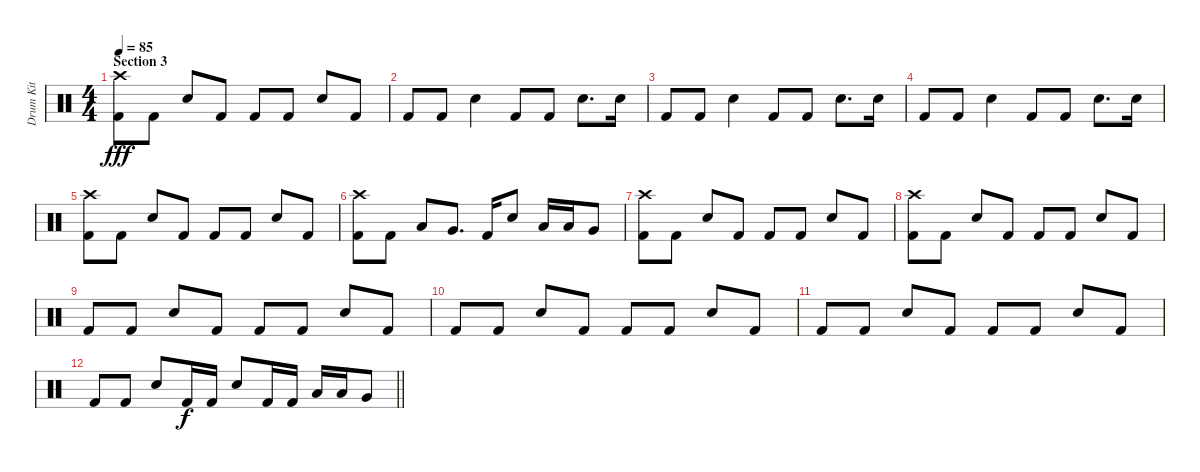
\track ("Drum Kit" "Drum Kit") {instrument percussion}
\staff {score}
\articulation defaults
\ts (4 4)
\section ("" "Section 3")
\tempo 85
\clef neutral
\ks c
("Crash high (hit)" "Kick (hit) 2").8{dy fff} "Kick (hit) 2".8 "Snare (hit) 2".8 "Kick (hit) 2".8 "Kick (hit) 2".8 "Kick (hit) 2".8 "Snare (hit) 2".8 "Kick (hit) 2".8 |
"Kick (hit) 2".8 "Kick (hit) 2".8 "Snare (hit) 2".4 "Kick (hit) 2".8 "Kick (hit) 2".8 "Snare (hit) 2".8{d} "Snare (hit) 2".16 |
"Kick (hit) 2".8 "Kick (hit) 2".8 "Snare (hit) 2".4 "Kick (hit) 2".8 "Kick (hit) 2".8 "Snare (hit) 2".8{d} "Snare (hit) 2".16 |
"Kick (hit) 2".8 "Kick (hit) 2".8 "Snare (hit) 2".4 "Kick (hit) 2".8 "Kick (hit) 2".8 "Snare (hit) 2".8{d} "Snare (hit) 2".16 |
("Crash high (hit)" "Kick (hit) 2").8 "Kick (hit) 2".8 "Snare (hit) 2".8 "Kick (hit) 2".8 "Kick (hit) 2".8 "Kick (hit) 2".8 "Snare (hit) 2".8 "Kick (hit) 2".8 |
("Crash high (hit)" "Kick (hit) 2").8 "Kick (hit) 2".8 "Low Tom (hit)".8 "Very Low Tom (hit)".8{d} "Kick (hit) 2".16 "Snare (hit) 2".8 "Low Tom (hit)".16 "Low Tom (hit)".16 "Very Low Tom (hit)".8 |
("Crash high (hit)" "Kick (hit) 2").8 "Kick (hit) 2".8 "Snare (hit) 2".8 "Kick (hit) 2".8 "Kick (hit) 2".8 "Kick (hit) 2".8 "Snare (hit) 2".8 "Kick (hit) 2".8 |
("Crash high (hit)" "Kick (hit) 2").8 "Kick (hit) 2".8 "Snare (hit) 2".8 "Kick (hit) 2".8 "Kick (hit) 2".8 "Kick (hit) 2".8 "Snare (hit) 2".8 "Kick (hit) 2".8 |
"Kick (hit) 2".8 "Kick (hit) 2".8 "Snare (hit) 2".8 "Kick (hit) 2".8 "Kick (hit) 2".8 "Kick (hit) 2".8 "Snare (hit) 2".8 "Kick (hit) 2".8 |
"Kick (hit) 2".8 "Kick (hit) 2".8 "Snare (hit) 2".8 "Kick (hit) 2".8 "Kick (hit) 2".8 "Kick (hit) 2".8 "Snare (hit) 2".8 "Kick (hit) 2".8 |
"Kick (hit) 2".8 "Kick (hit) 2".8 "Snare (hit) 2".8 "Kick (hit) 2".8 "Kick (hit) 2".8 "Kick (hit) 2".8 "Snare (hit) 2".8 "Kick (hit) 2".8 |
\barLineRight lightlight "Kick (hit) 2".8 "Kick (hit) 2".8 "Snare (hit) 2".8 "Kick (hit) 2".16{dy f} "Kick (hit) 2".16 "Snare (hit) 2".8 "Kick (hit) 2".16 "Kick (hit) 2".16 "Low Tom (hit)".16 "Low Tom (hit)".16 "Very Low Tom (hit)".8
